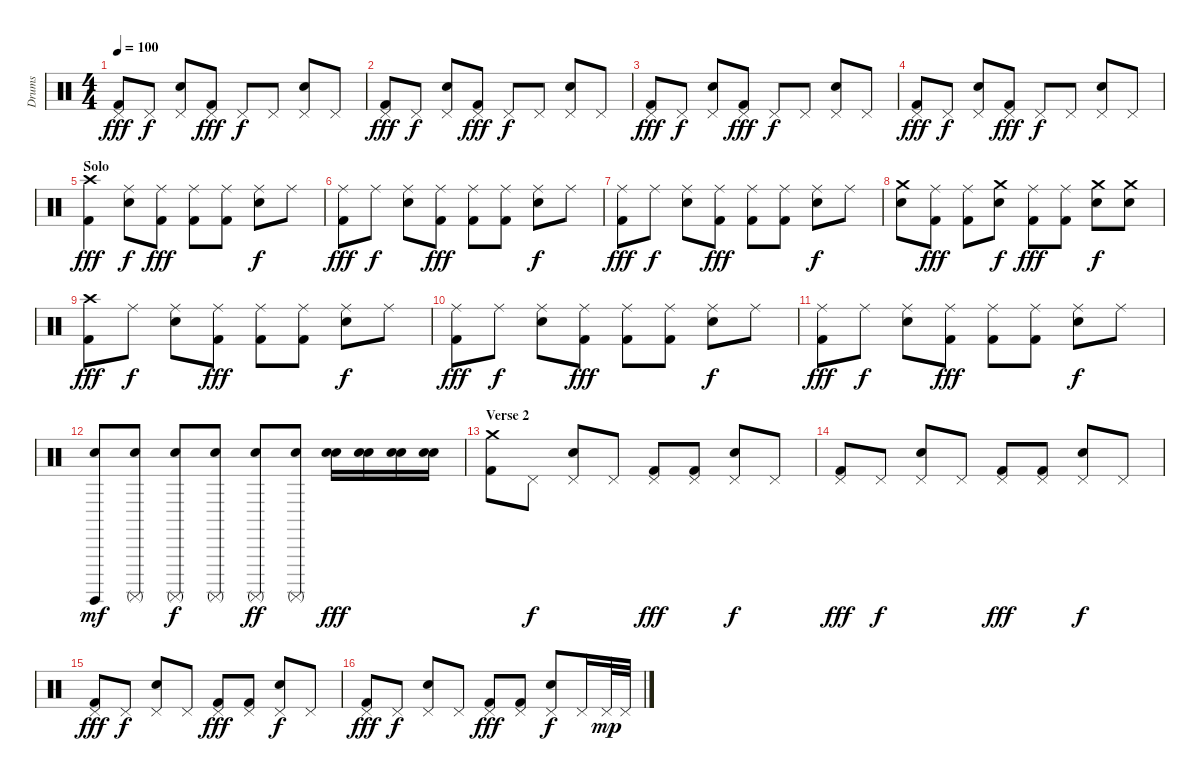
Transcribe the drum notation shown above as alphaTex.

\track ("Drums" "Drums") {instrument percussion}
\staff {score}
\articulation defaults
\ts (4 4)
\tempo 100
\clef neutral
\ks c
("Kick (hit) 2" "Pedal Hi-Hat (hit)").8{dy fff} "Pedal Hi-Hat (hit)".8{dy f} ("Electric Snare (hit)" "Pedal Hi-Hat (hit)").8 ("Kick (hit) 2" "Pedal Hi-Hat (hit)").8{dy fff} "Pedal Hi-Hat (hit)".8{dy f} "Pedal Hi-Hat (hit)".8 ("Electric Snare (hit)" "Pedal Hi-Hat (hit)").8 "Pedal Hi-Hat (hit)".8 |
("Kick (hit) 2" "Pedal Hi-Hat (hit)").8{dy fff} "Pedal Hi-Hat (hit)".8{dy f} ("Electric Snare (hit)" "Pedal Hi-Hat (hit)").8 ("Kick (hit) 2" "Pedal Hi-Hat (hit)").8{dy fff} "Pedal Hi-Hat (hit)".8{dy f} "Pedal Hi-Hat (hit)".8 ("Electric Snare (hit)" "Pedal Hi-Hat (hit)").8 "Pedal Hi-Hat (hit)".8 |
("Kick (hit) 2" "Pedal Hi-Hat (hit)").8{dy fff} "Pedal Hi-Hat (hit)".8{dy f} ("Electric Snare (hit)" "Pedal Hi-Hat (hit)").8 ("Kick (hit) 2" "Pedal Hi-Hat (hit)").8{dy fff} "Pedal Hi-Hat (hit)".8{dy f} "Pedal Hi-Hat (hit)".8 ("Electric Snare (hit)" "Pedal Hi-Hat (hit)").8 "Pedal Hi-Hat (hit)".8 |
("Kick (hit) 2" "Pedal Hi-Hat (hit)").8{dy fff} "Pedal Hi-Hat (hit)".8{dy f} ("Electric Snare (hit)" "Pedal Hi-Hat (hit)").8 ("Kick (hit) 2" "Pedal Hi-Hat (hit)").8{dy fff} "Pedal Hi-Hat (hit)".8{dy f} "Pedal Hi-Hat (hit)".8 ("Electric Snare (hit)" "Pedal Hi-Hat (hit)").8 "Pedal Hi-Hat (hit)".8 |
\section ("" "Solo")
("Kick (hit) 2" "Crash high (hit)").4{dy fff} ("Electric Snare (hit)" "Ride (middle)").8{dy f} ("Kick (hit) 2" "Ride (middle)").8{dy fff} ("Kick (hit) 2" "Ride (middle)").8 ("Kick (hit) 2" "Ride (middle)").8 ("Electric Snare (hit)" "Ride (middle)").8{dy f} "Ride (middle)".8 |
("Kick (hit) 2" "Ride (middle)").8{dy fff} "Ride (middle)".8{dy f} ("Electric Snare (hit)" "Ride (middle)").8 ("Kick (hit) 2" "Ride (middle)").8{dy fff} ("Kick (hit) 2" "Ride (middle)").8 ("Kick (hit) 2" "Ride (middle)").8 ("Electric Snare (hit)" "Ride (middle)").8{dy f} "Ride (middle)".8 |
("Kick (hit) 2" "Ride (middle)").8{dy fff} "Ride (middle)".8{dy f} ("Electric Snare (hit)" "Ride (middle)").8 ("Kick (hit) 2" "Ride (middle)").8{dy fff} ("Kick (hit) 2" "Ride (middle)").8 ("Kick (hit) 2" "Ride (middle)").8 ("Electric Snare (hit)" "Ride (middle)").8{dy f} "Ride (middle)".8 |
("Electric Snare (hit)" "Crash medium (hit)").8 ("Kick (hit) 2" "Ride (middle)").8{dy fff} ("Kick (hit) 2" "Ride (middle)").8 ("Electric Snare (hit)" "Crash medium (hit)").8{dy f} ("Kick (hit) 2" "Ride (middle)").8{dy fff} ("Kick (hit) 2" "Ride (middle)").8 ("Electric Snare (hit)" "Crash medium (hit)").8{dy f} ("Electric Snare (hit)" "Crash medium (hit)").8 |
("Kick (hit) 2" "Crash high (hit)").8{dy fff} "Ride (middle)".8{dy f} ("Electric Snare (hit)" "Ride (middle)").8 ("Kick (hit) 2" "Ride (middle)").8{dy fff} ("Kick (hit) 2" "Ride (middle)").8 ("Kick (hit) 2" "Ride (middle)").8 ("Electric Snare (hit)" "Ride (middle)").8{dy f} "Ride (middle)".8 |
("Kick (hit) 2" "Ride (middle)").8{dy fff} "Ride (middle)".8{dy f} ("Electric Snare (hit)" "Ride (middle)").8 ("Kick (hit) 2" "Ride (middle)").8{dy fff} ("Kick (hit) 2" "Ride (middle)").8 ("Kick (hit) 2" "Ride (middle)").8 ("Electric Snare (hit)" "Ride (middle)").8{dy f} "Ride (middle)".8 |
("Kick (hit) 2" "Ride (middle)").8{dy fff} "Ride (middle)".8{dy f} ("Electric Snare (hit)" "Ride (middle)").8 ("Kick (hit) 2" "Ride (middle)").8{dy fff} ("Kick (hit) 2" "Ride (middle)").8 ("Kick (hit) 2" "Ride (middle)").8 ("Electric Snare (hit)" "Ride (middle)").8{dy f} "Ride (middle)".8 |
("Electric Snare (hit)" "Surdo (hit)").8{dy mf} ("Electric Snare (hit)" "Surdo (mute)").8 ("Electric Snare (hit)" "Surdo (mute)").8{dy f} ("Electric Snare (hit)" "Surdo (mute)").8 ("Electric Snare (hit)" "Surdo (mute)").8{dy ff} ("Electric Snare (hit)" "Surdo (mute)").8 ("Electric Snare (hit)" "Hand Clap (hit)").16{dy fff} ("Electric Snare (hit)" "Hand Clap (hit)").16 ("Electric Snare (hit)" "Hand Clap (hit)").16 ("Electric Snare (hit)" "Hand Clap (hit)").16 |
\section ("" "Verse 2")
("Kick (hit) 2" "Crash medium (hit)").8 "Pedal Hi-Hat (hit)".8{dy f} ("Electric Snare (hit)" "Pedal Hi-Hat (hit)").8 "Pedal Hi-Hat (hit)".8 ("Kick (hit) 2" "Pedal Hi-Hat (hit)").8{dy fff} ("Kick (hit) 2" "Pedal Hi-Hat (hit)").8 ("Electric Snare (hit)" "Pedal Hi-Hat (hit)").8{dy f} "Pedal Hi-Hat (hit)".8 |
("Kick (hit) 2" "Pedal Hi-Hat (hit)").8{dy fff} "Pedal Hi-Hat (hit)".8{dy f} ("Electric Snare (hit)" "Pedal Hi-Hat (hit)").8 "Pedal Hi-Hat (hit)".8 ("Kick (hit) 2" "Pedal Hi-Hat (hit)").8{dy fff} ("Kick (hit) 2" "Pedal Hi-Hat (hit)").8 ("Electric Snare (hit)" "Pedal Hi-Hat (hit)").8{dy f} "Pedal Hi-Hat (hit)".8 |
("Kick (hit) 2" "Pedal Hi-Hat (hit)").8{dy fff} "Pedal Hi-Hat (hit)".8{dy f} ("Electric Snare (hit)" "Pedal Hi-Hat (hit)").8 "Pedal Hi-Hat (hit)".8 ("Kick (hit) 2" "Pedal Hi-Hat (hit)").8{dy fff} ("Kick (hit) 2" "Pedal Hi-Hat (hit)").8 ("Electric Snare (hit)" "Pedal Hi-Hat (hit)").8{dy f} "Pedal Hi-Hat (hit)".8 |
("Kick (hit) 2" "Pedal Hi-Hat (hit)").8{dy fff} "Pedal Hi-Hat (hit)".8{dy f} ("Electric Snare (hit)" "Pedal Hi-Hat (hit)").8 "Pedal Hi-Hat (hit)".8 ("Kick (hit) 2" "Pedal Hi-Hat (hit)").8{dy fff} ("Kick (hit) 2" "Pedal Hi-Hat (hit)").8 ("Electric Snare (hit)" "Pedal Hi-Hat (hit)").8{dy f} "Pedal Hi-Hat (hit)".16 "Pedal Hi-Hat (hit)".32{dy mp} "Pedal Hi-Hat (hit)".32
